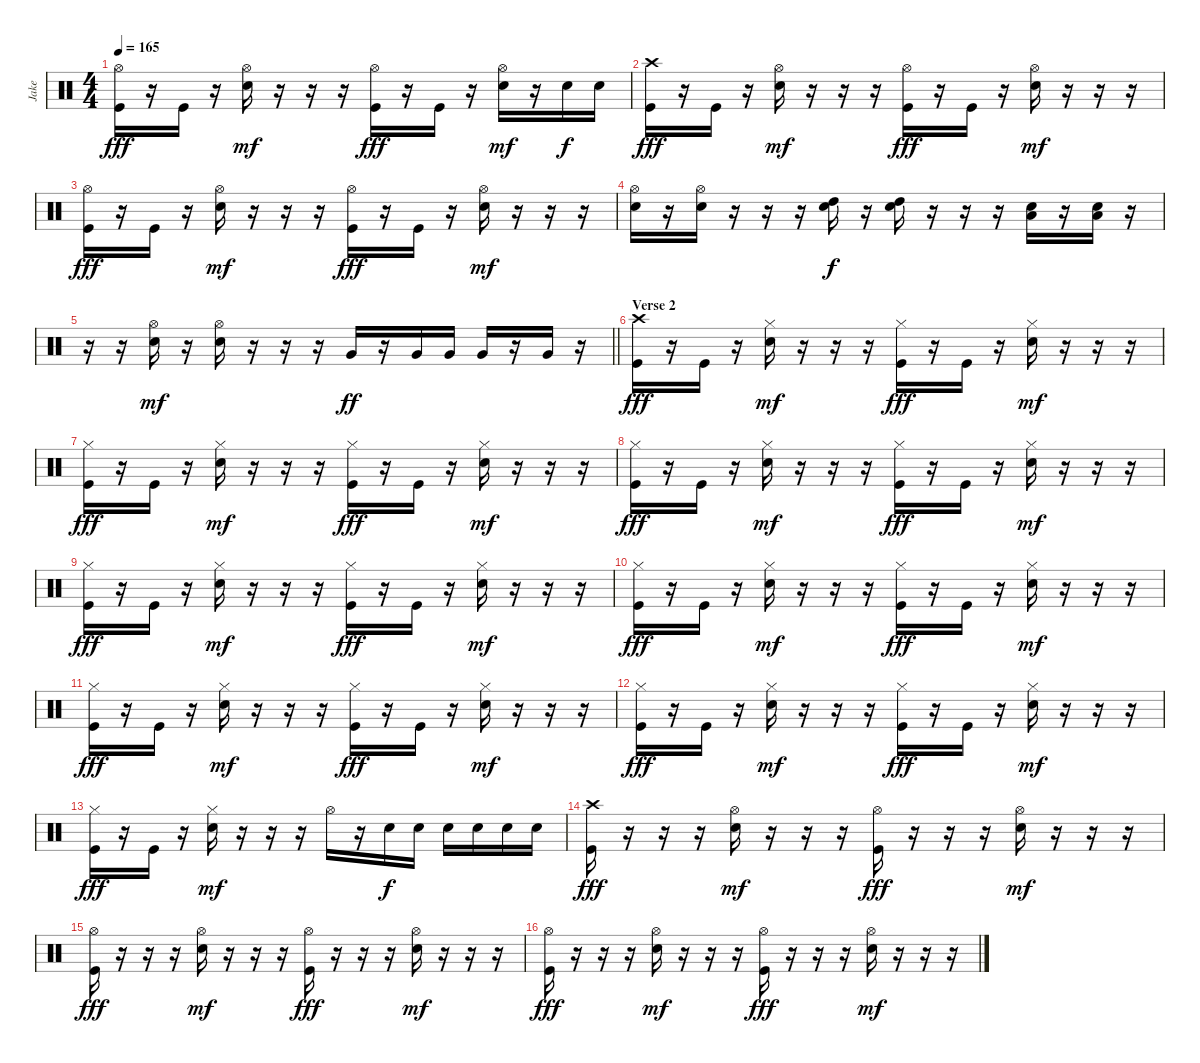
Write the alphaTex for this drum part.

\track ("Jake" "Jake") {instrument percussion}
\staff {score}
\articulation defaults
\ts (4 4)
\tempo 165
\clef neutral
\ks c
("Hi-Hat (open)" "Kick (hit)").16{dy fff} r.16 "Kick (hit)".16 r.16 ("Hi-Hat (open)" "Electric Snare (hit)").16{dy mf} r.16 r.16 r.16 ("Hi-Hat (open)" "Kick (hit)").16{dy fff} r.16 "Kick (hit)".16 r.16 ("Hi-Hat (open)" "Electric Snare (hit)").16{dy mf} r.16 "Electric Snare (hit)".16{dy f} "Electric Snare (hit)".16 |
("Crash high (hit)" "Kick (hit)").16{dy fff} r.16 "Kick (hit)".16 r.16 ("Hi-Hat (open)" "Electric Snare (hit)").16{dy mf} r.16 r.16 r.16 ("Hi-Hat (open)" "Kick (hit)").16{dy fff} r.16 "Kick (hit)".16 r.16 ("Hi-Hat (open)" "Electric Snare (hit)").16{dy mf} r.16 r.16 r.16 |
("Hi-Hat (open)" "Kick (hit)").16{dy fff} r.16 "Kick (hit)".16 r.16 ("Hi-Hat (open)" "Electric Snare (hit)").16{dy mf} r.16 r.16 r.16 ("Hi-Hat (open)" "Kick (hit)").16{dy fff} r.16 "Kick (hit)".16 r.16 ("Hi-Hat (open)" "Electric Snare (hit)").16{dy mf} r.16 r.16 r.16 |
("Hi-Hat (open)" "Electric Snare (hit)").16 r.16 ("Hi-Hat (open)" "Electric Snare (hit)").16 r.16 r.16 r.16 ("High Tom (hit)" "Electric Snare (hit)").16{dy f} r.16 ("High Tom (hit)" "Electric Snare (hit)").16 r.16 r.16 r.16 ("Low Tom (hit)" "Electric Snare (hit)").16 r.16 ("Low Tom (hit)" "Electric Snare (hit)").16 r.16 |
\barLineRight lightlight
r.16 r.16 ("Hi-Hat (open)" "Electric Snare (hit)").16{dy mf} r.16 ("Hi-Hat (open)" "Electric Snare (hit)").16 r.16 r.16 r.16 "Very Low Tom (hit)".16{dy ff} r.16 "Very Low Tom (hit)".16 "Very Low Tom (hit)".16 "Very Low Tom (hit)".16 r.16 "Very Low Tom (hit)".16 r.16 |
\section ("" "Verse 2")
("Crash high (hit)" "Kick (hit)").16{dy fff} r.16 "Kick (hit)".16 r.16 ("Hi-Hat (closed)" "Electric Snare (hit)").16{dy mf} r.16 r.16 r.16 ("Hi-Hat (closed)" "Kick (hit)").16{dy fff} r.16 "Kick (hit)".16 r.16 ("Hi-Hat (closed)" "Electric Snare (hit)").16{dy mf} r.16 r.16 r.16 |
("Hi-Hat (closed)" "Kick (hit)").16{dy fff} r.16 "Kick (hit)".16 r.16 ("Hi-Hat (closed)" "Electric Snare (hit)").16{dy mf} r.16 r.16 r.16 ("Hi-Hat (closed)" "Kick (hit)").16{dy fff} r.16 "Kick (hit)".16 r.16 ("Hi-Hat (closed)" "Electric Snare (hit)").16{dy mf} r.16 r.16 r.16 |
("Hi-Hat (closed)" "Kick (hit)").16{dy fff} r.16 "Kick (hit)".16 r.16 ("Hi-Hat (closed)" "Electric Snare (hit)").16{dy mf} r.16 r.16 r.16 ("Hi-Hat (closed)" "Kick (hit)").16{dy fff} r.16 "Kick (hit)".16 r.16 ("Hi-Hat (closed)" "Electric Snare (hit)").16{dy mf} r.16 r.16 r.16 |
("Hi-Hat (closed)" "Kick (hit)").16{dy fff} r.16 "Kick (hit)".16 r.16 ("Hi-Hat (closed)" "Electric Snare (hit)").16{dy mf} r.16 r.16 r.16 ("Hi-Hat (closed)" "Kick (hit)").16{dy fff} r.16 "Kick (hit)".16 r.16 ("Hi-Hat (closed)" "Electric Snare (hit)").16{dy mf} r.16 r.16 r.16 |
("Hi-Hat (closed)" "Kick (hit)").16{dy fff} r.16 "Kick (hit)".16 r.16 ("Hi-Hat (closed)" "Electric Snare (hit)").16{dy mf} r.16 r.16 r.16 ("Hi-Hat (closed)" "Kick (hit)").16{dy fff} r.16 "Kick (hit)".16 r.16 ("Hi-Hat (closed)" "Electric Snare (hit)").16{dy mf} r.16 r.16 r.16 |
("Hi-Hat (closed)" "Kick (hit)").16{dy fff} r.16 "Kick (hit)".16 r.16 ("Hi-Hat (closed)" "Electric Snare (hit)").16{dy mf} r.16 r.16 r.16 ("Hi-Hat (closed)" "Kick (hit)").16{dy fff} r.16 "Kick (hit)".16 r.16 ("Hi-Hat (closed)" "Electric Snare (hit)").16{dy mf} r.16 r.16 r.16 |
("Hi-Hat (closed)" "Kick (hit)").16{dy fff} r.16 "Kick (hit)".16 r.16 ("Hi-Hat (closed)" "Electric Snare (hit)").16{dy mf} r.16 r.16 r.16 ("Hi-Hat (closed)" "Kick (hit)").16{dy fff} r.16 "Kick (hit)".16 r.16 ("Hi-Hat (closed)" "Electric Snare (hit)").16{dy mf} r.16 r.16 r.16 |
("Hi-Hat (closed)" "Kick (hit)").16{dy fff} r.16 "Kick (hit)".16 r.16 ("Hi-Hat (closed)" "Electric Snare (hit)").16{dy mf} r.16 r.16 r.16 "Hi-Hat (open)".16 r.16 "Electric Snare (hit)".16{dy f} "Electric Snare (hit)".16 "Electric Snare (hit)".16 "Electric Snare (hit)".16 "Electric Snare (hit)".16 "Electric Snare (hit)".16 |
("Crash high (hit)" "Kick (hit)").16{dy fff} r.16 r.16 r.16 ("Hi-Hat (open)" "Electric Snare (hit)").16{dy mf} r.16 r.16 r.16 ("Hi-Hat (open)" "Kick (hit)").16{dy fff} r.16 r.16 r.16 ("Hi-Hat (open)" "Electric Snare (hit)").16{dy mf} r.16 r.16 r.16 |
("Hi-Hat (open)" "Kick (hit)").16{dy fff} r.16 r.16 r.16 ("Hi-Hat (open)" "Electric Snare (hit)").16{dy mf} r.16 r.16 r.16 ("Hi-Hat (open)" "Kick (hit)").16{dy fff} r.16 r.16 r.16 ("Hi-Hat (open)" "Electric Snare (hit)").16{dy mf} r.16 r.16 r.16 |
("Hi-Hat (open)" "Kick (hit)").16{dy fff} r.16 r.16 r.16 ("Hi-Hat (open)" "Electric Snare (hit)").16{dy mf} r.16 r.16 r.16 ("Hi-Hat (open)" "Kick (hit)").16{dy fff} r.16 r.16 r.16 ("Hi-Hat (open)" "Electric Snare (hit)").16{dy mf} r.16 r.16 r.16
